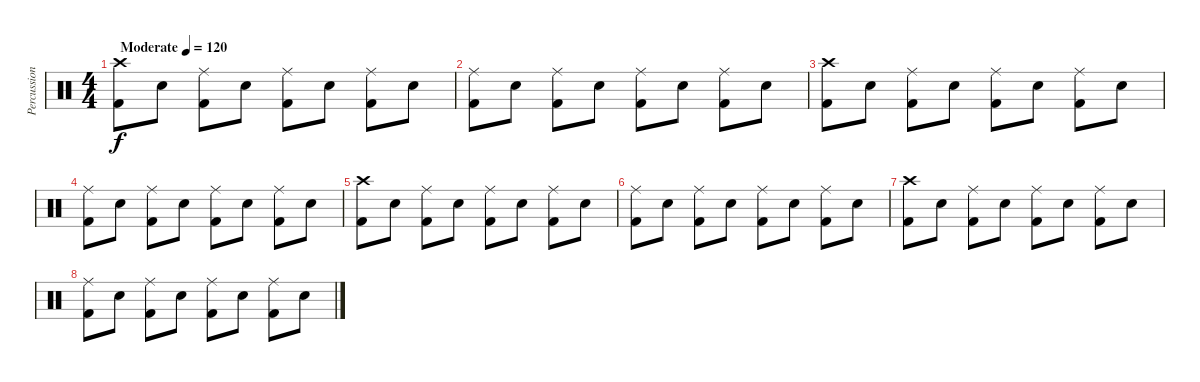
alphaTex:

\track ("Percussion" "Percussion") {instrument percussion}
\staff {score}
\articulation defaults
\ts (4 4)
\tempo (120 "Moderate")
\clef neutral
\ks c
("Crash high (hit)" "Kick (hit) 2").8{dy f} "Electric Snare (hit)".8 ("Ride (middle)" "Kick (hit) 2").8 "Electric Snare (hit)".8 ("Ride (middle)" "Kick (hit) 2").8 "Electric Snare (hit)".8 ("Ride (middle)" "Kick (hit) 2").8 "Electric Snare (hit)".8 |
("Ride (middle)" "Kick (hit) 2").8 "Electric Snare (hit)".8 ("Ride (middle)" "Kick (hit) 2").8 "Electric Snare (hit)".8 ("Ride (middle)" "Kick (hit) 2").8 "Electric Snare (hit)".8 ("Ride (middle)" "Kick (hit) 2").8 "Electric Snare (hit)".8 |
("Crash high (hit)" "Kick (hit) 2").8 "Electric Snare (hit)".8 ("Ride (middle)" "Kick (hit) 2").8 "Electric Snare (hit)".8 ("Ride (middle)" "Kick (hit) 2").8 "Electric Snare (hit)".8 ("Ride (middle)" "Kick (hit) 2").8 "Electric Snare (hit)".8 |
("Ride (middle)" "Kick (hit) 2").8 "Electric Snare (hit)".8 ("Ride (middle)" "Kick (hit) 2").8 "Electric Snare (hit)".8 ("Ride (middle)" "Kick (hit) 2").8 "Electric Snare (hit)".8 ("Ride (middle)" "Kick (hit) 2").8 "Electric Snare (hit)".8 |
("Crash high (hit)" "Kick (hit) 2").8 "Electric Snare (hit)".8 ("Ride (middle)" "Kick (hit) 2").8 "Electric Snare (hit)".8 ("Ride (middle)" "Kick (hit) 2").8 "Electric Snare (hit)".8 ("Ride (middle)" "Kick (hit) 2").8 "Electric Snare (hit)".8 |
("Ride (middle)" "Kick (hit) 2").8 "Electric Snare (hit)".8 ("Ride (middle)" "Kick (hit) 2").8 "Electric Snare (hit)".8 ("Ride (middle)" "Kick (hit) 2").8 "Electric Snare (hit)".8 ("Ride (middle)" "Kick (hit) 2").8 "Electric Snare (hit)".8 |
("Crash high (hit)" "Kick (hit) 2").8 "Electric Snare (hit)".8 ("Ride (middle)" "Kick (hit) 2").8 "Electric Snare (hit)".8 ("Ride (middle)" "Kick (hit) 2").8 "Electric Snare (hit)".8 ("Ride (middle)" "Kick (hit) 2").8 "Electric Snare (hit)".8 |
("Ride (middle)" "Kick (hit) 2").8 "Electric Snare (hit)".8 ("Ride (middle)" "Kick (hit) 2").8 "Electric Snare (hit)".8 ("Ride (middle)" "Kick (hit) 2").8 "Electric Snare (hit)".8 ("Ride (middle)" "Kick (hit) 2").8 "Electric Snare (hit)".8
